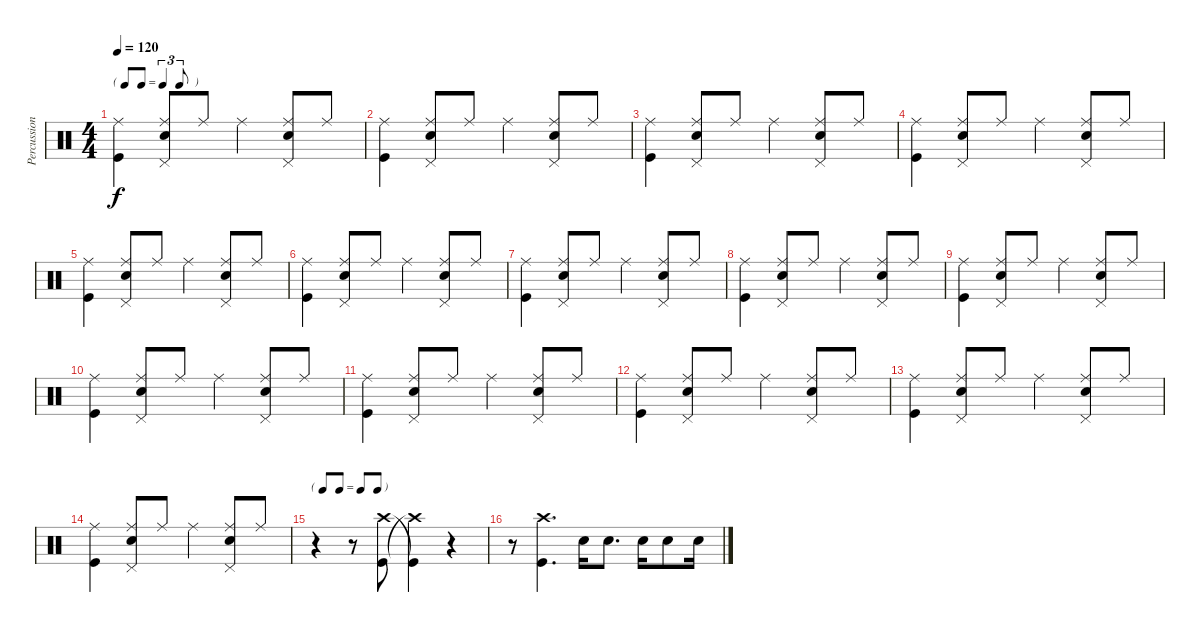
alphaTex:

\track ("Percussion" "Percussion") {instrument percussion}
\staff {score}
\articulation defaults
\ts (4 4)
\tf triplet8th
\tempo 120
\clef neutral
\ks c
("Ride (middle)" "Kick (hit)").4{dy f} ("Ride (middle)" "Snare (hit) 2" "Pedal Hi-Hat (hit)").8 "Ride (middle)".8 "Ride (middle)".4 ("Ride (middle)" "Snare (hit) 2" "Pedal Hi-Hat (hit)").8 "Ride (middle)".8 |
("Ride (middle)" "Kick (hit)").4 ("Ride (middle)" "Snare (hit) 2" "Pedal Hi-Hat (hit)").8 "Ride (middle)".8 "Ride (middle)".4 ("Ride (middle)" "Snare (hit) 2" "Pedal Hi-Hat (hit)").8 "Ride (middle)".8 |
("Ride (middle)" "Kick (hit)").4 ("Ride (middle)" "Snare (hit) 2" "Pedal Hi-Hat (hit)").8 "Ride (middle)".8 "Ride (middle)".4 ("Ride (middle)" "Snare (hit) 2" "Pedal Hi-Hat (hit)").8 "Ride (middle)".8 |
("Ride (middle)" "Kick (hit)").4 ("Ride (middle)" "Snare (hit) 2" "Pedal Hi-Hat (hit)").8 "Ride (middle)".8 "Ride (middle)".4 ("Ride (middle)" "Snare (hit) 2" "Pedal Hi-Hat (hit)").8 "Ride (middle)".8 |
("Ride (middle)" "Kick (hit)").4 ("Ride (middle)" "Snare (hit) 2" "Pedal Hi-Hat (hit)").8 "Ride (middle)".8 "Ride (middle)".4 ("Ride (middle)" "Snare (hit) 2" "Pedal Hi-Hat (hit)").8 "Ride (middle)".8 |
("Ride (middle)" "Kick (hit)").4 ("Ride (middle)" "Snare (hit) 2" "Pedal Hi-Hat (hit)").8 "Ride (middle)".8 "Ride (middle)".4 ("Ride (middle)" "Snare (hit) 2" "Pedal Hi-Hat (hit)").8 "Ride (middle)".8 |
("Ride (middle)" "Kick (hit)").4 ("Ride (middle)" "Snare (hit) 2" "Pedal Hi-Hat (hit)").8 "Ride (middle)".8 "Ride (middle)".4 ("Ride (middle)" "Snare (hit) 2" "Pedal Hi-Hat (hit)").8 "Ride (middle)".8 |
("Ride (middle)" "Kick (hit)").4 ("Ride (middle)" "Snare (hit) 2" "Pedal Hi-Hat (hit)").8 "Ride (middle)".8 "Ride (middle)".4 ("Ride (middle)" "Snare (hit) 2" "Pedal Hi-Hat (hit)").8 "Ride (middle)".8 |
("Ride (middle)" "Kick (hit)").4 ("Ride (middle)" "Snare (hit) 2" "Pedal Hi-Hat (hit)").8 "Ride (middle)".8 "Ride (middle)".4 ("Ride (middle)" "Snare (hit) 2" "Pedal Hi-Hat (hit)").8 "Ride (middle)".8 |
("Ride (middle)" "Kick (hit)").4 ("Ride (middle)" "Snare (hit) 2" "Pedal Hi-Hat (hit)").8 "Ride (middle)".8 "Ride (middle)".4 ("Ride (middle)" "Snare (hit) 2" "Pedal Hi-Hat (hit)").8 "Ride (middle)".8 |
("Ride (middle)" "Kick (hit)").4 ("Ride (middle)" "Snare (hit) 2" "Pedal Hi-Hat (hit)").8 "Ride (middle)".8 "Ride (middle)".4 ("Ride (middle)" "Snare (hit) 2" "Pedal Hi-Hat (hit)").8 "Ride (middle)".8 |
("Ride (middle)" "Kick (hit)").4 ("Ride (middle)" "Snare (hit) 2" "Pedal Hi-Hat (hit)").8 "Ride (middle)".8 "Ride (middle)".4 ("Ride (middle)" "Snare (hit) 2" "Pedal Hi-Hat (hit)").8 "Ride (middle)".8 |
("Ride (middle)" "Kick (hit)").4 ("Ride (middle)" "Snare (hit) 2" "Pedal Hi-Hat (hit)").8 "Ride (middle)".8 "Ride (middle)".4 ("Ride (middle)" "Snare (hit) 2" "Pedal Hi-Hat (hit)").8 "Ride (middle)".8 |
("Ride (middle)" "Kick (hit)").4 ("Ride (middle)" "Snare (hit) 2" "Pedal Hi-Hat (hit)").8 "Ride (middle)".8 "Ride (middle)".4 ("Ride (middle)" "Snare (hit) 2" "Pedal Hi-Hat (hit)").8 "Ride (middle)".8 |
\tf none
r.4 r.8 ("Kick (hit)" "Crash high (hit)").8 ("Crash high (hit)"{t} "Kick (hit)"{t}).4 r.4 |
r.8 ("Kick (hit)" "Crash high (hit)").4{d} "Snare (hit) 2".16 "Snare (hit) 2".8{d} "Snare (hit) 2".16 "Snare (hit) 2".8 "Snare (hit) 2".16
